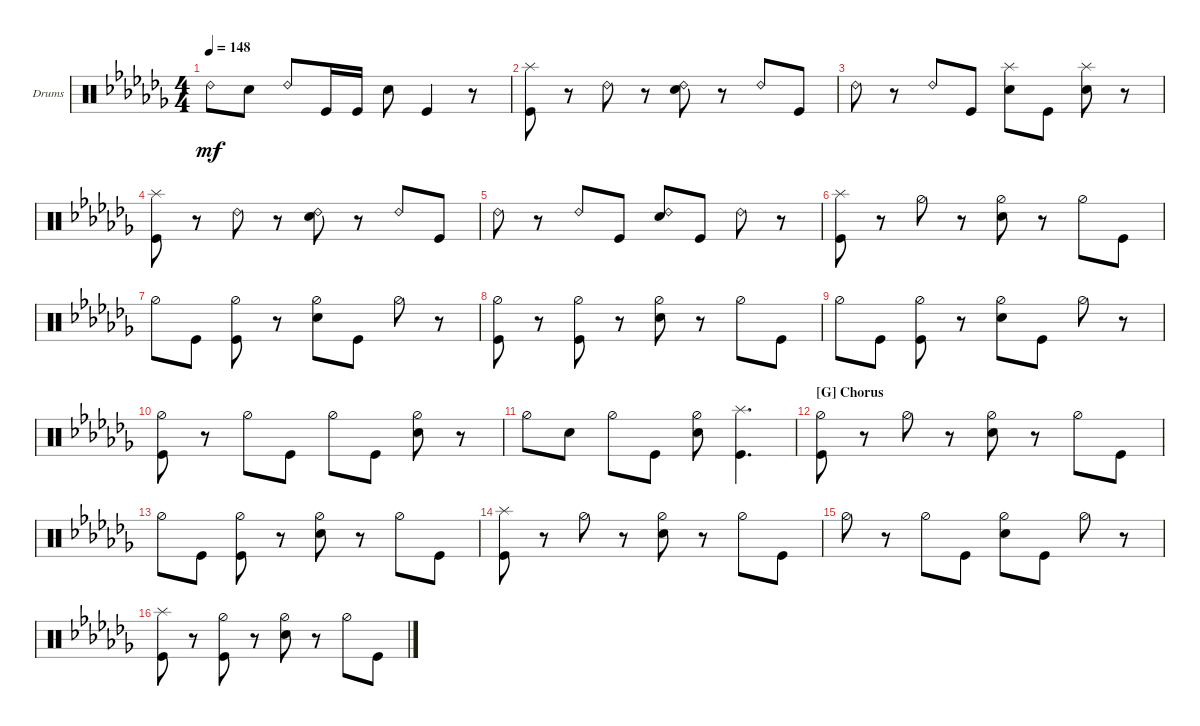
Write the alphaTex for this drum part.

\defaultSystemsLayout 4
\bracketExtendMode groupsimilarinstruments
\firstSystemTrackNameOrientation horizontal
\otherSystemsTrackNameOrientation horizontal
\track ("Drumkit" "Drums") {instrument percussion}
\staff {score}
\articulation defaults
\ts (4 4)
\tempo 148
\clef neutral
\ks abminor "Ride (bell) 2".8{dy mf} "Snare (hit) 2".8 "Ride (bell) 2".8 "Kick (hit)".16 "Kick (hit)".16 "Snare (hit) 2".8 "Kick (hit)".4
r.8 |
("Kick (hit)" "Splash (hit)").8 r.8 "Ride (bell) 2".8 r.8 ("Ride (bell) 2" "Snare (hit) 2").8 r.8 "Ride (bell) 2".8 "Kick (hit)".8 |
"Ride (bell) 2".8 r.8 "Ride (bell) 2".8 "Kick (hit)".8 ("Snare (hit) 2" "Splash (hit)").8 "Kick (hit)".8 ("Snare (hit) 2" "Splash (hit)").8 r.8 |
("Kick (hit)" "Splash (hit)").8 r.8 "Ride (bell) 2".8 r.8 ("Ride (bell) 2" "Snare (hit) 2").8 r.8 "Ride (bell) 2".8 "Kick (hit)".8 |
"Ride (bell) 2".8 r.8 "Ride (bell) 2".8 "Kick (hit)".8 ("Snare (hit) 2" "Ride (bell) 2").8 "Kick (hit)".8 "Ride (bell) 2".8 r.8 |
("Kick (hit)" "Splash (hit)").8 r.8 "Hi-Hat (half)".8 r.8 ("Hi-Hat (half)" "Snare (hit) 2").8 r.8 "Hi-Hat (half)".8 "Kick (hit)".8 |
"Hi-Hat (half)".8 "Kick (hit)".8 ("Kick (hit)" "Hi-Hat (half)").8 r.8 ("Snare (hit) 2" "Hi-Hat (half)").8 "Kick (hit)".8 "Hi-Hat (half)".8 r.8 |
("Kick (hit)" "Hi-Hat (half)").8 r.8 ("Kick (hit)" "Hi-Hat (half)").8 r.8 ("Snare (hit) 2" "Hi-Hat (half)").8 r.8 "Hi-Hat (half)".8 "Kick (hit)".8 |
"Hi-Hat (half)".8 "Kick (hit)".8 ("Kick (hit)" "Hi-Hat (half)").8 r.8 ("Snare (hit) 2" "Hi-Hat (half)").8 "Kick (hit)".8 "Hi-Hat (half)".8 r.8 |
("Kick (hit)" "Hi-Hat (half)").8 r.8 "Hi-Hat (half)".8 "Kick (hit)".8 "Hi-Hat (half)".8 "Kick (hit)".8 ("Hi-Hat (half)" "Snare (hit) 2").8 r.8 |
"Hi-Hat (half)".8 "Snare (hit) 2".8 "Hi-Hat (half)".8 "Kick (hit)".8 ("Snare (hit) 2" "Hi-Hat (half)").8 ("Kick (hit)" "Splash (hit)").4{d} |
\section ("G" "Chorus")
("Kick (hit)" "Hi-Hat (half)").8 r.8 "Hi-Hat (half)".8 r.8 ("Hi-Hat (half)" "Snare (hit) 2").8 r.8 "Hi-Hat (half)".8 "Kick (hit)".8 |
"Hi-Hat (half)".8 "Kick (hit)".8 ("Kick (hit)" "Hi-Hat (half)").8 r.8 ("Snare (hit) 2" "Hi-Hat (half)").8 r.8 "Hi-Hat (half)".8 "Kick (hit)".8 |
("Kick (hit)" "Splash (hit)").8 r.8 "Hi-Hat (half)".8 r.8 ("Hi-Hat (half)" "Snare (hit) 2").8 r.8 "Hi-Hat (half)".8 "Kick (hit)".8 |
"Hi-Hat (half)".8 r.8 "Hi-Hat (half)".8 "Kick (hit)".8 ("Snare (hit) 2" "Hi-Hat (half)").8 "Kick (hit)".8 "Hi-Hat (half)".8 r.8 |
("Kick (hit)" "Splash (hit)").8 r.8 ("Hi-Hat (half)" "Kick (hit)").8 r.8 ("Hi-Hat (half)" "Snare (hit) 2").8 r.8 "Hi-Hat (half)".8 "Kick (hit)".8
